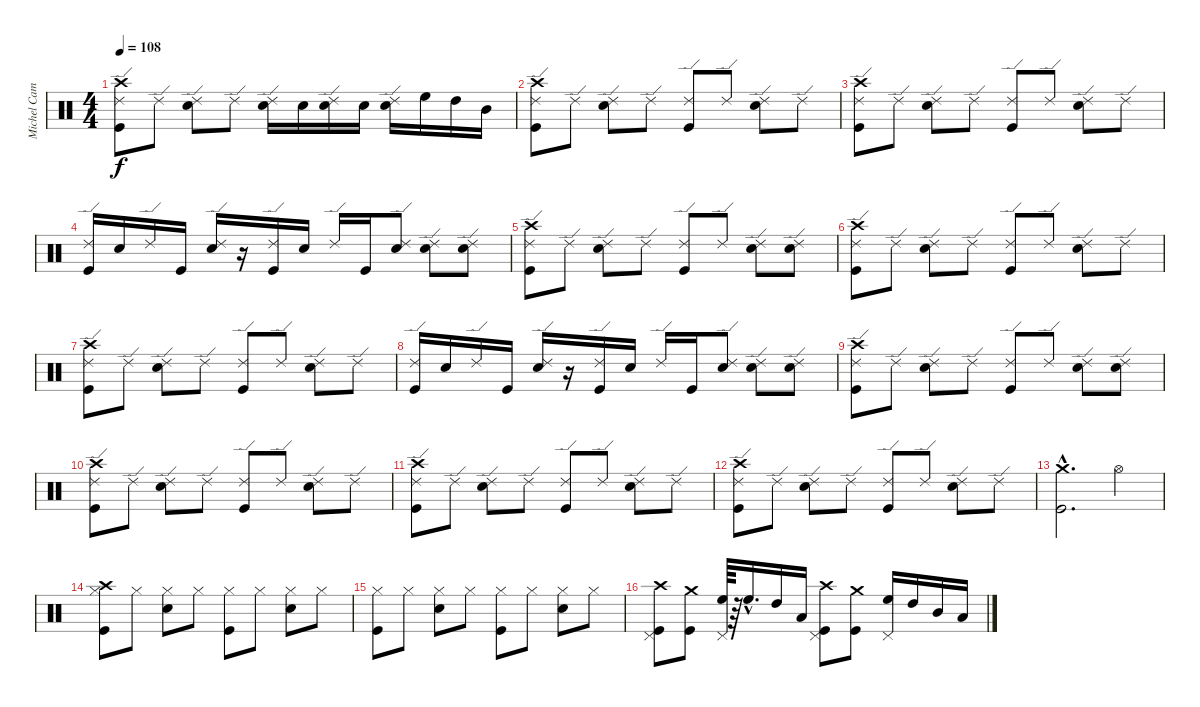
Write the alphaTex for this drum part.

\track ("Michel Camiade" "Michel Cam") {instrument percussion}
\staff {score}
\articulation defaults
\ts (4 4)
\tempo 108
\clef neutral
\ks c
("Crash high (hit)" "Ride (edge) 2" "Kick (hit)").8{dy f} "Ride (edge) 2".8 ("Ride (edge) 2" "Snare (hit) 2").8 "Ride (edge) 2".8 ("Ride (edge) 2" "Snare (hit) 2").16 "Snare (hit) 2".16 ("Ride (edge) 2" "Snare (hit) 2").16 "Snare (hit) 2".16 ("Ride (edge) 2" "Snare (hit) 2").16 "High Floor Tom (hit)".16 "High Tom (hit)".16 "Mid Tom (hit)".16 |
("Crash high (hit)" "Ride (edge) 2" "Kick (hit)").8 "Ride (edge) 2".8 ("Ride (edge) 2" "Snare (hit) 2").8 "Ride (edge) 2".8 ("Ride (edge) 2" "Kick (hit)").8 "Ride (edge) 2".8 ("Ride (edge) 2" "Snare (hit) 2").8 "Ride (edge) 2".8 |
("Crash high (hit)" "Ride (edge) 2" "Kick (hit)").8 "Ride (edge) 2".8 ("Ride (edge) 2" "Snare (hit) 2").8 "Ride (edge) 2".8 ("Ride (edge) 2" "Kick (hit)").8 "Ride (edge) 2".8 ("Ride (edge) 2" "Snare (hit) 2").8 "Ride (edge) 2".8 |
("Ride (edge) 2" "Kick (hit)").16 "Snare (hit) 2".16 "Ride (edge) 2".16 "Kick (hit)".16 ("Ride (edge) 2" "Snare (hit) 2").16 r.16 ("Ride (edge) 2" "Kick (hit)").16 "Snare (hit) 2".16 "Ride (edge) 2".16 "Kick (hit)".16 ("Ride (edge) 2" "Snare (hit) 2").8 ("Ride (edge) 2" "Snare (hit) 2").8 ("Ride (edge) 2" "Snare (hit) 2").8 |
("Crash high (hit)" "Ride (edge) 2" "Kick (hit)").8 "Ride (edge) 2".8 ("Ride (edge) 2" "Snare (hit) 2").8 "Ride (edge) 2".8 ("Ride (edge) 2" "Kick (hit)").8 "Ride (edge) 2".8 ("Ride (edge) 2" "Snare (hit) 2").8 ("Ride (edge) 2" "Snare (hit) 2").8 |
("Crash high (hit)" "Ride (edge) 2" "Kick (hit)").8 "Ride (edge) 2".8 ("Ride (edge) 2" "Snare (hit) 2").8 "Ride (edge) 2".8 ("Ride (edge) 2" "Kick (hit)").8 "Ride (edge) 2".8 ("Ride (edge) 2" "Snare (hit) 2").8 "Ride (edge) 2".8 |
("Crash high (hit)" "Ride (edge) 2" "Kick (hit)").8 "Ride (edge) 2".8 ("Ride (edge) 2" "Snare (hit) 2").8 "Ride (edge) 2".8 ("Ride (edge) 2" "Kick (hit)").8 "Ride (edge) 2".8 ("Ride (edge) 2" "Snare (hit) 2").8 "Ride (edge) 2".8 |
("Ride (edge) 2" "Kick (hit)").16 "Snare (hit) 2".16 "Ride (edge) 2".16 "Kick (hit)".16 ("Ride (edge) 2" "Snare (hit) 2").16 r.16 ("Ride (edge) 2" "Kick (hit)").16 "Snare (hit) 2".16 "Ride (edge) 2".16 "Kick (hit)".16 ("Ride (edge) 2" "Snare (hit) 2").8 ("Ride (edge) 2" "Snare (hit) 2").8 ("Ride (edge) 2" "Snare (hit) 2").8 |
("Crash high (hit)" "Ride (edge) 2" "Kick (hit)").8 "Ride (edge) 2".8 ("Ride (edge) 2" "Snare (hit) 2").8 "Ride (edge) 2".8 ("Ride (edge) 2" "Kick (hit)").8 "Ride (edge) 2".8 ("Ride (edge) 2" "Snare (hit) 2").8 ("Ride (edge) 2" "Snare (hit) 2").8 |
("Crash high (hit)" "Ride (edge) 2" "Kick (hit)").8 "Ride (edge) 2".8 ("Ride (edge) 2" "Snare (hit) 2").8 "Ride (edge) 2".8 ("Ride (edge) 2" "Kick (hit)").8 "Ride (edge) 2".8 ("Ride (edge) 2" "Snare (hit) 2").8 "Ride (edge) 2".8 |
("Crash high (hit)" "Ride (edge) 2" "Kick (hit)").8 "Ride (edge) 2".8 ("Ride (edge) 2" "Snare (hit) 2").8 "Ride (edge) 2".8 ("Ride (edge) 2" "Kick (hit)").8 "Ride (edge) 2".8 ("Ride (edge) 2" "Snare (hit) 2").8 "Ride (edge) 2".8 |
("Crash high (hit)" "Ride (edge) 2" "Kick (hit)").8 "Ride (edge) 2".8 ("Ride (edge) 2" "Snare (hit) 2").8 "Ride (edge) 2".8 ("Ride (edge) 2" "Kick (hit)").8 "Ride (edge) 2".8 ("Ride (edge) 2" "Snare (hit) 2").8 "Ride (edge) 2".8 |
("Crash medium (hit)"{hac} "Kick (hit)"{hac}).2{d} "Hi-Hat (open)".4 |
("Crash high (hit)" "Hi-Hat (closed)" "Kick (hit)").8 "Hi-Hat (closed)".8 ("Hi-Hat (closed)" "Snare (hit) 2").8 "Hi-Hat (closed)".8 ("Hi-Hat (closed)" "Kick (hit)").8 "Hi-Hat (closed)".8 ("Hi-Hat (closed)" "Snare (hit) 2").8 "Hi-Hat (closed)".8 |
("Hi-Hat (closed)" "Kick (hit)").8 "Hi-Hat (closed)".8 ("Hi-Hat (closed)" "Snare (hit) 2").8 "Hi-Hat (closed)".8 ("Hi-Hat (closed)" "Kick (hit)").8 "Hi-Hat (closed)".8 ("Hi-Hat (closed)" "Snare (hit) 2").8 "Hi-Hat (closed)".8 |
("Crash high (hit)" "Pedal Hi-Hat (hit)" "Kick (hit)").8 ("Crash medium (hit)" "Kick (hit)").8 ("High Floor Tom (hit)" "Pedal Hi-Hat (hit)").64 r.64 "High Floor Tom (hit)"{hac}.16{d} "High Tom (hit)".16 "Low Tom (hit)".16 ("Crash high (hit)" "Pedal Hi-Hat (hit)" "Kick (hit)").8 ("Crash medium (hit)" "Kick (hit)").8 ("High Floor Tom (hit)" "Pedal Hi-Hat (hit)").16 "High Tom (hit)".16 "Mid Tom (hit)".16 "Low Tom (hit)".16
